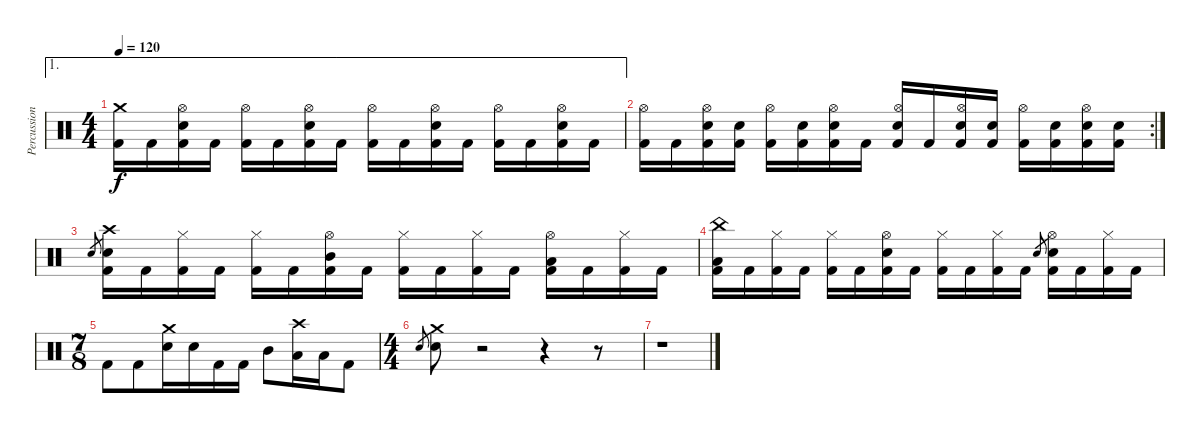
\track ("Percussions" "Percussion") {instrument percussion}
\staff {score}
\articulation defaults
\ae 1
\ts (4 4)
\tempo 120
\clef neutral
\ks c
("Crash medium (hit)" "Kick (hit) 2").16{dy f} "Kick (hit) 2".16 ("Hi-Hat (open)" "Electric Snare (hit)" "Kick (hit) 2").16 "Kick (hit) 2".16 ("Hi-Hat (open)" "Kick (hit) 2").16 "Kick (hit) 2".16 ("Hi-Hat (open)" "Electric Snare (hit)" "Kick (hit) 2").16 "Kick (hit) 2".16 ("Hi-Hat (open)" "Kick (hit) 2").16 "Kick (hit) 2".16 ("Hi-Hat (open)" "Electric Snare (hit)" "Kick (hit) 2").16 "Kick (hit) 2".16 ("Hi-Hat (open)" "Kick (hit) 2").16 "Kick (hit) 2".16 ("Hi-Hat (open)" "Electric Snare (hit)" "Kick (hit) 2").16 "Kick (hit) 2".16 |
\rc 2
("Hi-Hat (open)" "Kick (hit) 2").16 "Kick (hit) 2".16 ("Hi-Hat (open)" "Electric Snare (hit)" "Kick (hit) 2").16 ("Electric Snare (hit)" "Kick (hit) 2").16 ("Hi-Hat (open)" "Kick (hit) 2").16 ("Electric Snare (hit)" "Kick (hit) 2").16 ("Hi-Hat (open)" "Electric Snare (hit)" "Kick (hit) 2").16 "Kick (hit) 2".16 ("Hi-Hat (open)" "Electric Snare (hit)" "Kick (hit) 2").16 "Kick (hit) 2".16 ("Hi-Hat (open)" "Electric Snare (hit)" "Kick (hit) 2").16 ("Electric Snare (hit)" "Kick (hit) 2").16 ("Hi-Hat (open)" "Kick (hit) 2").16 ("Electric Snare (hit)" "Kick (hit) 2").16 ("Hi-Hat (open)" "Electric Snare (hit)" "Kick (hit) 2").16 ("Electric Snare (hit)" "Kick (hit) 2").16 |
"Electric Snare (hit)".8{gr} ("Crash high (hit)" "Electric Snare (hit)" "Kick (hit) 2").16 "Kick (hit) 2".16 ("Hi-Hat (closed)" "Kick (hit) 2").16 "Kick (hit) 2".16 ("Hi-Hat (closed)" "Kick (hit) 2").16 "Kick (hit) 2".16 ("Hi-Hat (open)" "Mid Tom (hit)" "Kick (hit) 2").16 "Kick (hit) 2".16 ("Hi-Hat (closed)" "Kick (hit) 2").16 "Kick (hit) 2".16 ("Hi-Hat (closed)" "Kick (hit) 2").16 "Kick (hit) 2".16 ("Hi-Hat (open)" "Low Tom (hit)" "Kick (hit) 2").16 "Kick (hit) 2".16 ("Hi-Hat (closed)" "Kick (hit) 2").16 "Kick (hit) 2".16 |
("China (hit)" "Low Floor Tom (hit)" "Kick (hit) 2").16 "Kick (hit) 2".16 ("Hi-Hat (closed)" "Kick (hit) 2").16 "Kick (hit) 2".16 ("Hi-Hat (closed)" "Kick (hit) 2").16 "Kick (hit) 2".16 ("Hi-Hat (open)" "Electric Snare (hit)" "Kick (hit) 2").16 "Kick (hit) 2".16 ("Hi-Hat (closed)" "Kick (hit) 2").16 "Kick (hit) 2".16 ("Hi-Hat (closed)" "Kick (hit) 2").16 "Kick (hit) 2".16 "Electric Snare (hit)".8{gr} ("Hi-Hat (open)" "Electric Snare (hit)" "Kick (hit) 2").16 "Kick (hit) 2".16 ("Hi-Hat (closed)" "Kick (hit) 2").16 "Kick (hit) 2".16 |
\ts (7 8)
"Kick (hit) 2".8 "Kick (hit) 2".8 ("Crash medium (hit)" "Electric Snare (hit)").16 "Electric Snare (hit)".16 "Kick (hit) 2".16 "Kick (hit) 2".16 "Mid Tom (hit)".8 ("Crash high (hit)" "Low Tom (hit)").16 "Low Tom (hit)".16 "Kick (hit) 2".8 |
\ts (4 4)
"Electric Snare (hit)".8{gr} ("Crash medium (hit)" "Electric Snare (hit)").8 r.2 r.4 r.8 |
r.1
